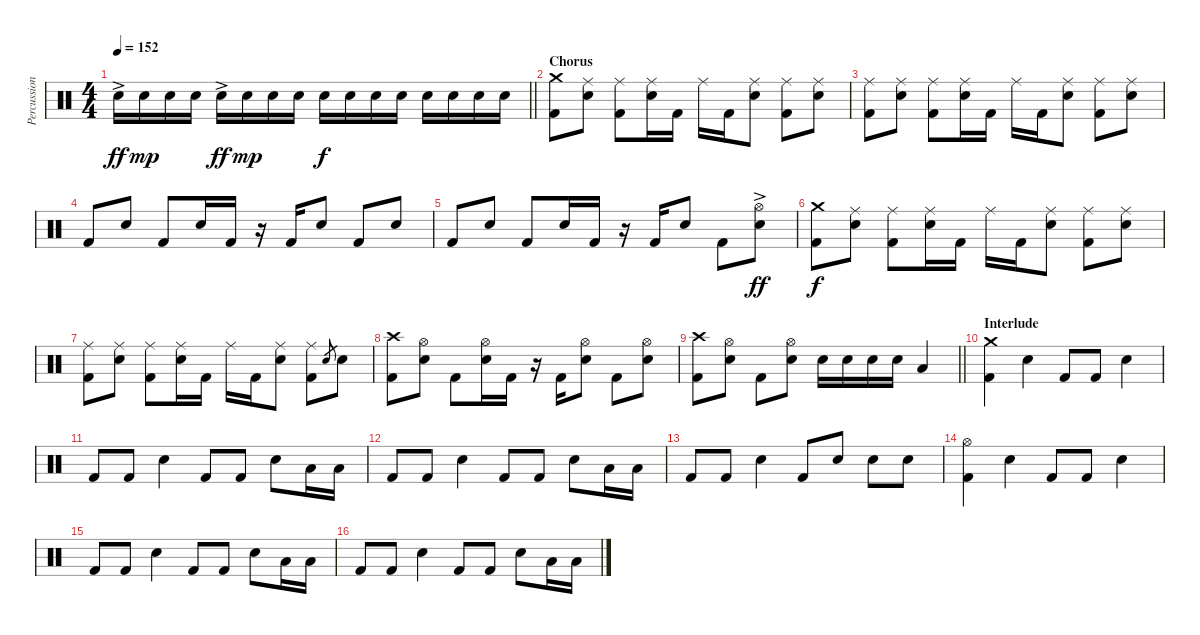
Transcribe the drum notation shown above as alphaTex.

\track ("Percussion" "Percussion") {instrument percussion}
\staff {score}
\articulation defaults
\ts (4 4)
\tempo 152
\clef neutral
\barLineRight lightlight
\ks c "Electric Snare (hit)"{ac}.16{dy ff} "Electric Snare (hit)".16{dy mp} "Electric Snare (hit)".16 "Electric Snare (hit)".16 "Electric Snare (hit)"{ac}.16{dy ff} "Electric Snare (hit)".16{dy mp} "Electric Snare (hit)".16 "Electric Snare (hit)".16 "Electric Snare (hit)".16{dy f} "Electric Snare (hit)".16 "Electric Snare (hit)".16 "Electric Snare (hit)".16 "Electric Snare (hit)".16 "Electric Snare (hit)".16 "Electric Snare (hit)".16 "Electric Snare (hit)".16
|
\section ("" "Chorus")
("Crash medium (hit)" "Kick (hit) 2").8 ("Ride (middle)" "Electric Snare (hit)").8 ("Ride (middle)" "Kick (hit) 2").8 ("Ride (middle)" "Electric Snare (hit)").16 "Kick (hit) 2".16 "Ride (middle)".16 "Kick (hit) 2".16 ("Ride (middle)" "Electric Snare (hit)").8 ("Ride (middle)" "Kick (hit) 2").8 ("Ride (middle)" "Electric Snare (hit)").8 |
("Ride (middle)" "Kick (hit) 2").8 ("Ride (middle)" "Electric Snare (hit)").8 ("Ride (middle)" "Kick (hit) 2").8 ("Ride (middle)" "Electric Snare (hit)").16 "Kick (hit) 2".16 "Ride (middle)".16 "Kick (hit) 2".16 ("Ride (middle)" "Electric Snare (hit)").8 ("Ride (middle)" "Kick (hit) 2").8 ("Ride (middle)" "Electric Snare (hit)").8 |
"Kick (hit) 2".8 "Electric Snare (hit)".8 "Kick (hit) 2".8 "Electric Snare (hit)".16 "Kick (hit) 2".16 r.16 "Kick (hit) 2".16 "Electric Snare (hit)".8 "Kick (hit) 2".8 "Electric Snare (hit)".8 |
"Kick (hit) 2".8 "Electric Snare (hit)".8 "Kick (hit) 2".8 "Electric Snare (hit)".16 "Kick (hit) 2".16 r.16 "Kick (hit) 2".16 "Electric Snare (hit)".8 "Kick (hit) 2".8 ("Hi-Hat (open)" "Electric Snare (hit)"{ac}).8{dy ff} |
("Crash medium (hit)" "Kick (hit) 2").8{dy f} ("Ride (middle)" "Electric Snare (hit)").8 ("Ride (middle)" "Kick (hit) 2").8 ("Ride (middle)" "Electric Snare (hit)").16 "Kick (hit) 2".16 "Ride (middle)".16 "Kick (hit) 2".16 ("Ride (middle)" "Electric Snare (hit)").8 ("Ride (middle)" "Kick (hit) 2").8 ("Ride (middle)" "Electric Snare (hit)").8 |
("Ride (middle)" "Kick (hit) 2").8 ("Ride (middle)" "Electric Snare (hit)").8 ("Ride (middle)" "Kick (hit) 2").8 ("Ride (middle)" "Electric Snare (hit)").16 "Kick (hit) 2".16 "Ride (middle)".16 "Kick (hit) 2".16 ("Ride (middle)" "Electric Snare (hit)").8 ("Ride (middle)" "Kick (hit) 2").8 "Electric Snare (hit)".8{gr} "Electric Snare (hit)".8 |
("Crash high (hit)" "Kick (hit) 2").8 ("Hi-Hat (open)" "Electric Snare (hit)").8 "Kick (hit) 2".8 ("Hi-Hat (open)" "Electric Snare (hit)").16 "Kick (hit) 2".16 r.16 "Kick (hit) 2".16 ("Hi-Hat (open)" "Electric Snare (hit)").8 "Kick (hit) 2".8 ("Hi-Hat (open)" "Electric Snare (hit)").8 |
\barLineRight lightlight
("Crash high (hit)" "Kick (hit) 2").8 ("Hi-Hat (open)" "Electric Snare (hit)").8 "Kick (hit) 2".8 ("Hi-Hat (open)" "Electric Snare (hit)").8 "Electric Snare (hit)".16 "Electric Snare (hit)".16 "Electric Snare (hit)".16 "Electric Snare (hit)".16 "Low Tom (hit)".4 |
\section ("" "Interlude")
("Crash medium (hit)" "Kick (hit) 2").4 "Electric Snare (hit)".4 "Kick (hit) 2".8 "Kick (hit) 2".8 "Electric Snare (hit)".4 |
"Kick (hit) 2".8 "Kick (hit) 2".8 "Electric Snare (hit)".4 "Kick (hit) 2".8 "Kick (hit) 2".8 "Electric Snare (hit)".8 "Low Tom (hit)".16 "Low Tom (hit)".16 |
"Kick (hit) 2".8 "Kick (hit) 2".8 "Electric Snare (hit)".4 "Kick (hit) 2".8 "Kick (hit) 2".8 "Electric Snare (hit)".8 "Low Tom (hit)".16 "Low Tom (hit)".16 |
"Kick (hit) 2".8 "Kick (hit) 2".8 "Electric Snare (hit)".4 "Kick (hit) 2".8 "Electric Snare (hit)".8 "Electric Snare (hit)".8 "Electric Snare (hit)".8 |
("Hi-Hat (open)" "Kick (hit) 2").4 "Electric Snare (hit)".4 "Kick (hit) 2".8 "Kick (hit) 2".8 "Electric Snare (hit)".4 |
"Kick (hit) 2".8 "Kick (hit) 2".8 "Electric Snare (hit)".4 "Kick (hit) 2".8 "Kick (hit) 2".8 "Electric Snare (hit)".8 "Low Tom (hit)".16 "Low Tom (hit)".16 |
"Kick (hit) 2".8 "Kick (hit) 2".8 "Electric Snare (hit)".4 "Kick (hit) 2".8 "Kick (hit) 2".8 "Electric Snare (hit)".8 "Low Tom (hit)".16 "Low Tom (hit)".16
